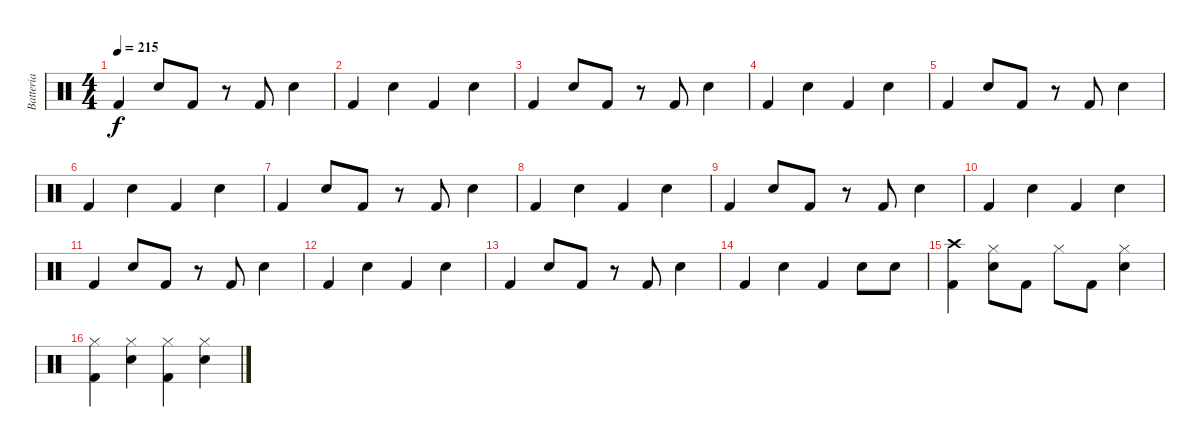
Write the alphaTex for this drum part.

\track ("Batteria" "Batteria") {instrument percussion}
\staff {score}
\articulation defaults
\ts (4 4)
\tempo 215
\clef neutral
\ks c "Kick (hit) 2".4{dy f} "Electric Snare (hit)".8 "Kick (hit) 2".8
r.8 "Kick (hit) 2".8 "Electric Snare (hit)".4 |
"Kick (hit) 2".4 "Electric Snare (hit)".4 "Kick (hit) 2".4 "Electric Snare (hit)".4 |
"Kick (hit) 2".4 "Electric Snare (hit)".8 "Kick (hit) 2".8 r.8 "Kick (hit) 2".8 "Electric Snare (hit)".4 |
"Kick (hit) 2".4 "Electric Snare (hit)".4 "Kick (hit) 2".4 "Electric Snare (hit)".4 |
"Kick (hit) 2".4 "Electric Snare (hit)".8 "Kick (hit) 2".8 r.8 "Kick (hit) 2".8 "Electric Snare (hit)".4 |
"Kick (hit) 2".4 "Electric Snare (hit)".4 "Kick (hit) 2".4 "Electric Snare (hit)".4 |
"Kick (hit) 2".4 "Electric Snare (hit)".8 "Kick (hit) 2".8 r.8 "Kick (hit) 2".8 "Electric Snare (hit)".4 |
"Kick (hit) 2".4 "Electric Snare (hit)".4 "Kick (hit) 2".4 "Electric Snare (hit)".4 |
"Kick (hit) 2".4 "Electric Snare (hit)".8 "Kick (hit) 2".8 r.8 "Kick (hit) 2".8 "Electric Snare (hit)".4 |
"Kick (hit) 2".4 "Electric Snare (hit)".4 "Kick (hit) 2".4 "Electric Snare (hit)".4 |
"Kick (hit) 2".4 "Electric Snare (hit)".8 "Kick (hit) 2".8 r.8 "Kick (hit) 2".8 "Electric Snare (hit)".4 |
"Kick (hit) 2".4 "Electric Snare (hit)".4 "Kick (hit) 2".4 "Electric Snare (hit)".4 |
"Kick (hit) 2".4 "Electric Snare (hit)".8 "Kick (hit) 2".8 r.8 "Kick (hit) 2".8 "Electric Snare (hit)".4 |
"Kick (hit) 2".4 "Electric Snare (hit)".4 "Kick (hit) 2".4 "Electric Snare (hit)".8 "Electric Snare (hit)".8 |
("Crash high (hit)" "Kick (hit) 2").4 ("Hi-Hat (closed)" "Electric Snare (hit)").8 "Kick (hit) 2".8 "Hi-Hat (closed)".8 "Kick (hit) 2".8 ("Hi-Hat (closed)" "Electric Snare (hit)").4 |
("Hi-Hat (closed)" "Kick (hit) 2").4 ("Hi-Hat (closed)" "Electric Snare (hit)").4 ("Hi-Hat (closed)" "Kick (hit) 2").4 ("Hi-Hat (closed)" "Electric Snare (hit)").4
